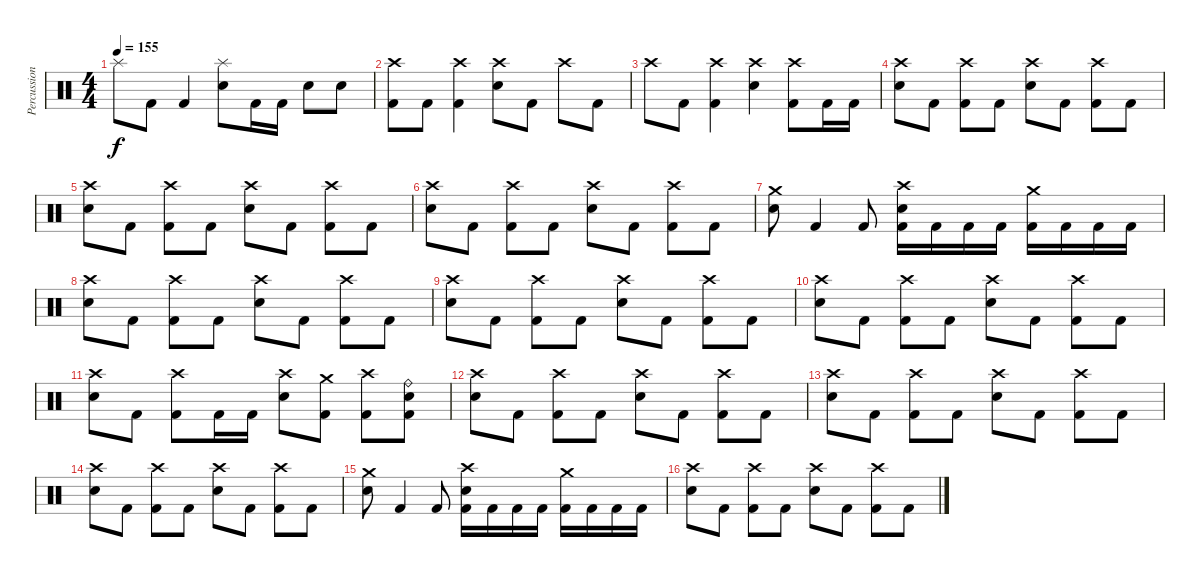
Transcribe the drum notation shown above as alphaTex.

\track ("Percussion" "Percussion") {instrument percussion}
\staff {score}
\articulation defaults
\ts (4 4)
\tempo 155
\clef neutral
\ks c "Splash (hit)".8{dy f} "Kick (hit) 2".8 "Kick (hit) 2".4
("Splash (hit)" "Snare (hit) 2").8 "Kick (hit) 2".16 "Kick (hit) 2".16 "Snare (hit) 2".8 "Snare (hit) 2".8 |
("Crash high (hit)" "Kick (hit) 2").8 "Kick (hit) 2".8 ("Crash high (hit)" "Kick (hit) 2").4 ("Crash high (hit)" "Snare (hit) 2").8 "Kick (hit) 2".8 "Crash high (hit)".8 "Kick (hit) 2".8 |
"Crash high (hit)".8 "Kick (hit) 2".8 ("Crash high (hit)" "Kick (hit) 2").4 ("Crash high (hit)" "Snare (hit) 2").4 ("Crash high (hit)" "Kick (hit) 2").8 "Kick (hit) 2".16 "Kick (hit) 2".16 |
("Crash high (hit)" "Snare (hit) 2").8 "Kick (hit) 2".8 ("Crash high (hit)" "Kick (hit) 2").8 "Kick (hit) 2".8 ("Crash high (hit)" "Snare (hit) 2").8 "Kick (hit) 2".8 ("Crash high (hit)" "Kick (hit) 2").8 "Kick (hit) 2".8 |
("Crash high (hit)" "Snare (hit) 2").8 "Kick (hit) 2".8 ("Crash high (hit)" "Kick (hit) 2").8 "Kick (hit) 2".8 ("Crash high (hit)" "Snare (hit) 2").8 "Kick (hit) 2".8 ("Crash high (hit)" "Kick (hit) 2").8 "Kick (hit) 2".8 |
("Crash high (hit)" "Snare (hit) 2").8 "Kick (hit) 2".8 ("Crash high (hit)" "Kick (hit) 2").8 "Kick (hit) 2".8 ("Crash high (hit)" "Snare (hit) 2").8 "Kick (hit) 2".8 ("Crash high (hit)" "Kick (hit) 2").8 "Kick (hit) 2".8 |
("Crash medium (hit)" "Snare (hit) 2").8 "Kick (hit) 2".4 "Kick (hit) 2".8 ("Crash high (hit)" "Snare (hit) 2" "Kick (hit) 2").16 "Kick (hit) 2".16 "Kick (hit) 2".16 "Kick (hit) 2".16 ("Crash medium (hit)" "Kick (hit) 2").16 "Kick (hit) 2".16 "Kick (hit) 2".16 "Kick (hit) 2".16 |
("Crash high (hit)" "Snare (hit) 2").8 "Kick (hit) 2".8 ("Crash high (hit)" "Kick (hit) 2").8 "Kick (hit) 2".8 ("Crash high (hit)" "Snare (hit) 2").8 "Kick (hit) 2".8 ("Crash high (hit)" "Kick (hit) 2").8 "Kick (hit) 2".8 |
("Crash high (hit)" "Snare (hit) 2").8 "Kick (hit) 2".8 ("Crash high (hit)" "Kick (hit) 2").8 "Kick (hit) 2".8 ("Crash high (hit)" "Snare (hit) 2").8 "Kick (hit) 2".8 ("Crash high (hit)" "Kick (hit) 2").8 "Kick (hit) 2".8 |
("Crash high (hit)" "Snare (hit) 2").8 "Kick (hit) 2".8 ("Crash high (hit)" "Kick (hit) 2").8 "Kick (hit) 2".8 ("Crash high (hit)" "Snare (hit) 2").8 "Kick (hit) 2".8 ("Crash high (hit)" "Kick (hit) 2").8 "Kick (hit) 2".8 |
("Crash high (hit)" "Snare (hit) 2").8 "Kick (hit) 2".8 ("Crash high (hit)" "Kick (hit) 2").8 "Kick (hit) 2".16 "Kick (hit) 2".16 ("Crash high (hit)" "Snare (hit) 2").8 ("Crash medium (hit)" "Kick (hit) 2").8 ("Crash high (hit)" "Kick (hit) 2").8 ("Ride (bell)" "Snare (hit) 2" "Kick (hit) 2").8 |
("Crash high (hit)" "Snare (hit) 2").8 "Kick (hit) 2".8 ("Crash high (hit)" "Kick (hit) 2").8 "Kick (hit) 2".8 ("Crash high (hit)" "Snare (hit) 2").8 "Kick (hit) 2".8 ("Crash high (hit)" "Kick (hit) 2").8 "Kick (hit) 2".8 |
("Crash high (hit)" "Snare (hit) 2").8 "Kick (hit) 2".8 ("Crash high (hit)" "Kick (hit) 2").8 "Kick (hit) 2".8 ("Crash high (hit)" "Snare (hit) 2").8 "Kick (hit) 2".8 ("Crash high (hit)" "Kick (hit) 2").8 "Kick (hit) 2".8 |
("Crash high (hit)" "Snare (hit) 2").8 "Kick (hit) 2".8 ("Crash high (hit)" "Kick (hit) 2").8 "Kick (hit) 2".8 ("Crash high (hit)" "Snare (hit) 2").8 "Kick (hit) 2".8 ("Crash high (hit)" "Kick (hit) 2").8 "Kick (hit) 2".8 |
("Crash medium (hit)" "Snare (hit) 2").8 "Kick (hit) 2".4 "Kick (hit) 2".8 ("Crash high (hit)" "Snare (hit) 2" "Kick (hit) 2").16 "Kick (hit) 2".16 "Kick (hit) 2".16 "Kick (hit) 2".16 ("Crash medium (hit)" "Kick (hit) 2").16 "Kick (hit) 2".16 "Kick (hit) 2".16 "Kick (hit) 2".16 |
("Crash high (hit)" "Snare (hit) 2").8 "Kick (hit) 2".8 ("Crash high (hit)" "Kick (hit) 2").8 "Kick (hit) 2".8 ("Crash high (hit)" "Snare (hit) 2").8 "Kick (hit) 2".8 ("Crash high (hit)" "Kick (hit) 2").8 "Kick (hit) 2".8
